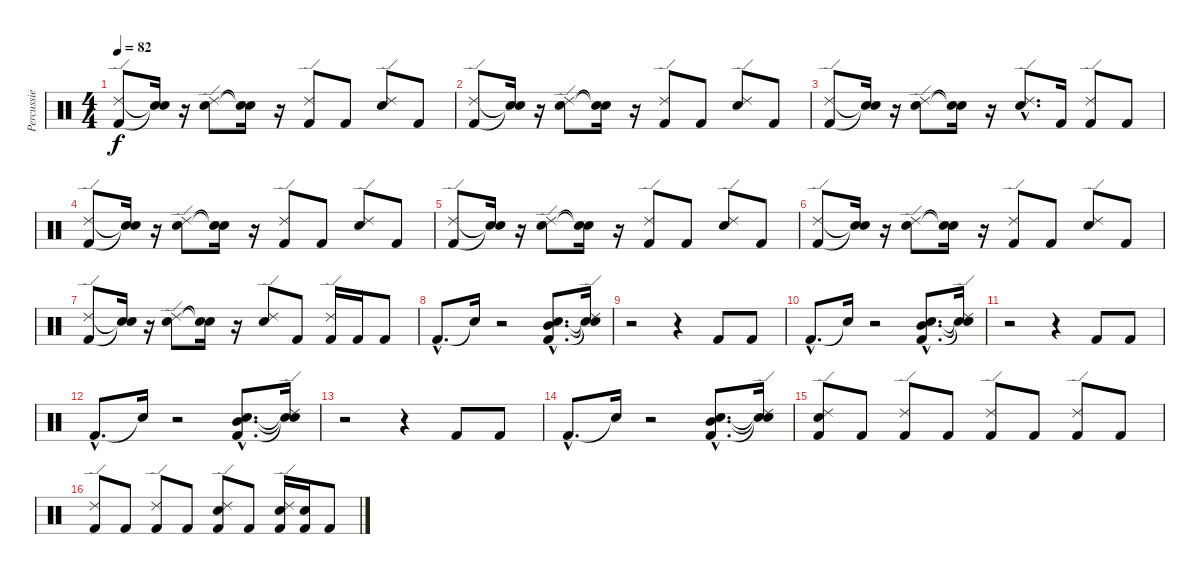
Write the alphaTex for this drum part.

\track ("Percussie" "Percussie") {instrument percussion}
\staff {score}
\articulation defaults
\ts (4 4)
\tempo 82
\clef neutral
\ks c
("Kick (hit) 2" "Ride (edge) 2").8{dy f} ("Snare (hit)"{t} "Snare (hit)"{t}).16 r.16 ("Snare (hit) 2" "Ride (edge) 2").8 ("Snare (hit)"{t} "Snare (hit)"{t}).16 r.16 ("Kick (hit) 2" "Ride (edge) 2").8 "Kick (hit) 2".8 ("Snare (hit) 2" "Ride (edge) 2").8 "Kick (hit) 2".8 |
("Kick (hit) 2" "Ride (edge) 2").8 ("Snare (hit)"{t} "Snare (hit)"{t}).16 r.16 ("Snare (hit) 2" "Ride (edge) 2").8 ("Snare (hit)"{t} "Snare (hit)"{t}).16 r.16 ("Kick (hit) 2" "Ride (edge) 2").8 "Kick (hit) 2".8 ("Snare (hit) 2" "Ride (edge) 2").8 "Kick (hit) 2".8 |
("Kick (hit) 2" "Ride (edge) 2").8 ("Snare (hit)"{t} "Snare (hit)"{t}).16 r.16 ("Snare (hit) 2" "Ride (edge) 2").8 ("Snare (hit)"{t} "Snare (hit)"{t}).16 r.16 ("Snare (hit) 2"{hac} "Ride (edge) 2"{hac}).8{d} "Kick (hit) 2".16 ("Kick (hit) 2" "Ride (edge) 2").8 "Kick (hit) 2".8 |
("Kick (hit) 2" "Ride (edge) 2").8 ("Snare (hit)"{t} "Snare (hit)"{t}).16 r.16 ("Snare (hit) 2" "Ride (edge) 2").8 ("Snare (hit)"{t} "Snare (hit)"{t}).16 r.16 ("Kick (hit) 2" "Ride (edge) 2").8 "Kick (hit) 2".8 ("Snare (hit) 2" "Ride (edge) 2").8 "Kick (hit) 2".8 |
("Kick (hit) 2" "Ride (edge) 2").8 ("Snare (hit)"{t} "Snare (hit)"{t}).16 r.16 ("Snare (hit) 2" "Ride (edge) 2").8 ("Snare (hit)"{t} "Snare (hit)"{t}).16 r.16 ("Kick (hit) 2" "Ride (edge) 2").8 "Kick (hit) 2".8 ("Snare (hit) 2" "Ride (edge) 2").8 "Kick (hit) 2".8 |
("Kick (hit) 2" "Ride (edge) 2").8 ("Snare (hit)"{t} "Snare (hit)"{t}).16 r.16 ("Snare (hit) 2" "Ride (edge) 2").8 ("Snare (hit)"{t} "Snare (hit)"{t}).16 r.16 ("Kick (hit) 2" "Ride (edge) 2").8 "Kick (hit) 2".8 ("Snare (hit) 2" "Ride (edge) 2").8 "Kick (hit) 2".8 |
("Kick (hit) 2" "Ride (edge) 2").8 ("Snare (hit)"{t} "Snare (hit)"{t}).16 r.16 ("Snare (hit) 2" "Ride (edge) 2").8 ("Snare (hit)"{t} "Snare (hit)"{t}).16 r.16 ("Snare (hit) 2" "Ride (edge) 2").8 "Kick (hit) 2".8 ("Kick (hit) 2" "Ride (edge) 2").16 "Kick (hit) 2".16 "Kick (hit) 2".8 |
"Kick (hit) 2"{hac}.8{d} "Snare (hit)"{t}.16 r.2 ("Kick (hit) 2"{hac} "Electric Snare (hit)"{hac} "Mid Tom (hit)"{hac}).8{d} ("Snare (hit) 2"{t} "Ride (edge) 2"{t} "Snare (hit)"{t}).16 |
r.2 r.4 "Kick (hit) 2".8 "Kick (hit) 2".8 |
"Kick (hit) 2"{hac}.8{d} "Snare (hit)"{t}.16 r.2 ("Kick (hit) 2"{hac} "Electric Snare (hit)"{hac} "Mid Tom (hit)"{hac}).8{d} ("Snare (hit) 2"{t} "Ride (edge) 2"{t} "Snare (hit)"{t}).16 |
r.2 r.4 "Kick (hit) 2".8 "Kick (hit) 2".8 |
"Kick (hit) 2"{hac}.8{d} "Snare (hit)"{t}.16 r.2 ("Kick (hit) 2"{hac} "Electric Snare (hit)"{hac} "Mid Tom (hit)"{hac}).8{d} ("Snare (hit) 2"{t} "Ride (edge) 2"{t} "Snare (hit)"{t}).16 |
r.2 r.4 "Kick (hit) 2".8 "Kick (hit) 2".8 |
"Kick (hit) 2"{hac}.8{d} "Snare (hit)"{t}.16 r.2 ("Kick (hit) 2"{hac} "Electric Snare (hit)"{hac} "Mid Tom (hit)"{hac}).8{d} ("Snare (hit) 2"{t} "Ride (edge) 2"{t} "Snare (hit)"{t}).16 |
("Kick (hit) 2" "Snare (hit) 2" "Ride (edge) 2").8 "Kick (hit) 2".8 ("Kick (hit) 2" "Ride (edge) 2").8 "Kick (hit) 2".8 ("Kick (hit) 2" "Ride (edge) 2").8 "Kick (hit) 2".8 ("Kick (hit) 2" "Ride (edge) 2").8 "Kick (hit) 2".8 |
("Kick (hit) 2" "Ride (edge) 2").8 "Kick (hit) 2".8 ("Kick (hit) 2" "Ride (edge) 2").8 "Kick (hit) 2".8 ("Kick (hit) 2" "Snare (hit) 2" "Ride (edge) 2").8 "Kick (hit) 2".8 ("Kick (hit) 2" "Snare (hit) 2" "Ride (edge) 2").16 ("Kick (hit) 2" "Snare (hit) 2").16 "Kick (hit) 2".8
